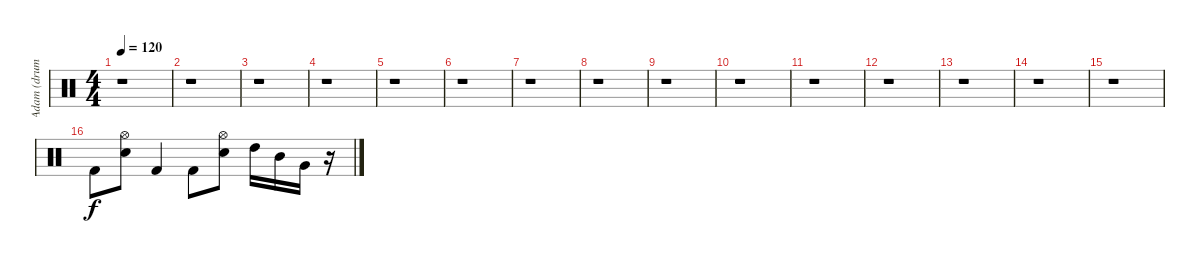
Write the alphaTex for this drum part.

\track ("Adam (drums)" "Adam (drum") {instrument percussion}
\staff {score}
\articulation defaults
\ts (4 4)
\tempo 120
\clef neutral
\ks c
r.1{dy f} |
r.1 |
r.1 |
r.1 |
r.1 |
r.1 |
r.1 |
r.1 |
r.1 |
r.1 |
r.1 |
r.1 |
r.1 |
r.1 |
r.1 |
"Kick (hit) 2".8 ("Hi-Hat (open)" "Snare (hit) 2").8 "Kick (hit) 2".4 "Kick (hit) 2".8 ("Hi-Hat (open)" "Snare (hit) 2").8 "High Tom (hit)".16 "Mid Tom (hit)".16 "Very Low Tom (hit)".16 r.16
